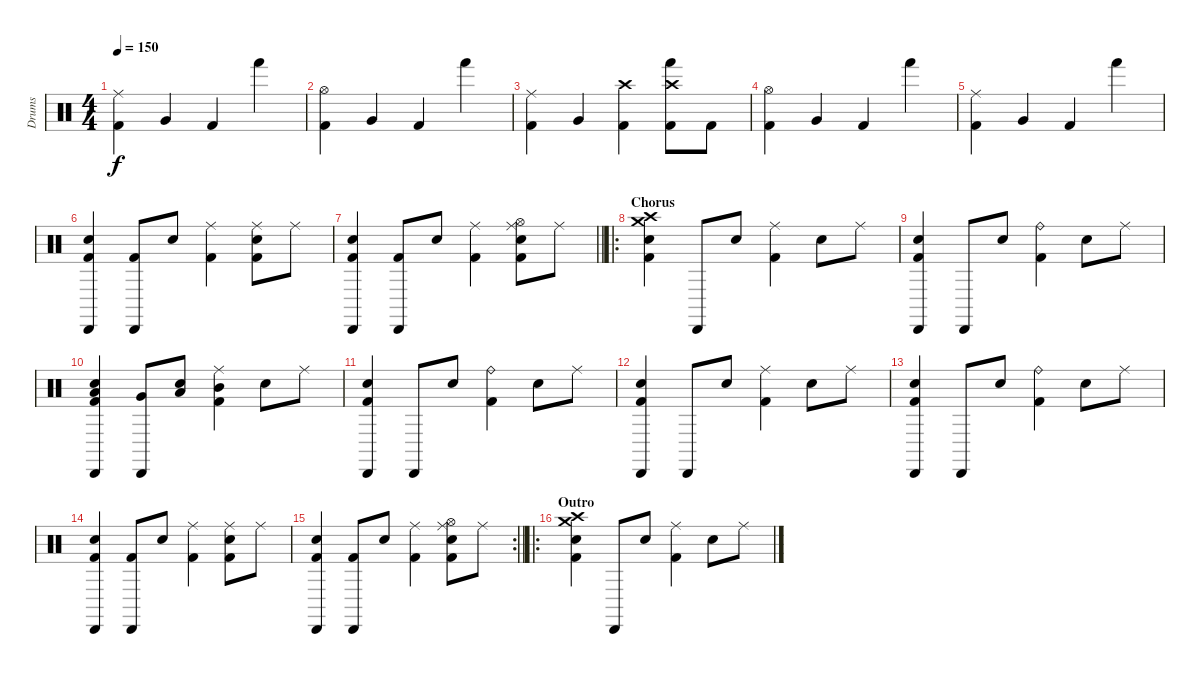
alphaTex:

\track ("Drums" "Drums") {instrument percussion}
\staff {score}
\articulation defaults
\ts (4 4)
\tempo 150
\clef neutral
\ks c
("Ride (middle)" "Kick (hit) 2").4{dy f} "Very Low Tom (hit)".4 "Kick (hit) 2".4 "Hand (hit)".4 |
("Hi-Hat (open)" "Kick (hit) 2").4 "Very Low Tom (hit)".4 "Kick (hit) 2".4 "Hand (hit)".4 |
("Ride (middle)" "Kick (hit) 2").4 "Very Low Tom (hit)".4 ("Crash high (hit)" "Kick (hit) 2").4 ("Crash high (hit)" "Hand (hit)" "Kick (hit) 2").8 "Kick (hit) 2".8 |
("Hi-Hat (open)" "Kick (hit) 2").4 "Very Low Tom (hit)".4 "Kick (hit) 2".4 "Hand (hit)".4 |
("Ride (middle)" "Kick (hit) 2").4 "Very Low Tom (hit)".4 "Kick (hit) 2".4 "Hand (hit)".4 |
("Cabasa (hit)" "Electric Snare (hit)" "Kick (hit) 2").4 ("Cabasa (hit)" "Kick (hit) 2").8 "Electric Snare (hit)".8 ("Ride (middle)" "Kick (hit) 2").4 ("Ride (middle)" "Electric Snare (hit)" "Kick (hit) 2").8 "Ride (middle)".8 |
\barLineRight lightlight
("Cabasa (hit)" "Electric Snare (hit)" "Kick (hit) 2").4 ("Cabasa (hit)" "Kick (hit) 2").8 "Electric Snare (hit)".8 ("Ride (middle)" "Kick (hit) 2").4 ("Ride (middle)" "Electric Snare (hit)" "Hi-Hat (open)" "Kick (hit) 2").8 "Ride (middle)".8 |
\ro
\section ("" "Chorus")
("Crash medium (hit)" "Crash high (hit)" "Electric Snare (hit)" "Kick (hit) 2").4 "Cabasa (hit)".8 "Electric Snare (hit)".8 ("Ride (middle)" "Kick (hit) 2").4 "Electric Snare (hit)".8 "Ride (middle)".8 |
("Cabasa (hit)" "Electric Snare (hit)" "Kick (hit) 2").4 "Cabasa (hit)".8 "Electric Snare (hit)".8 ("Ride (bell)" "Kick (hit) 2").4 "Electric Snare (hit)".8 "Ride (middle)".8 |
("Cabasa (hit)" "Low Floor Tom (hit)" "Electric Snare (hit)" "Kick (hit) 2").4 ("Cabasa (hit)" "Very Low Tom (hit)").8 ("Electric Snare (hit)" "Low Tom (hit)").8 ("Ride (middle)" "Mid Tom (hit)" "Kick (hit) 2").4 "Electric Snare (hit)".8 "Ride (middle)".8 |
("Cabasa (hit)" "Electric Snare (hit)" "Kick (hit) 2").4 "Cabasa (hit)".8 "Electric Snare (hit)".8 ("Ride (bell)" "Kick (hit) 2").4 "Electric Snare (hit)".8 "Ride (middle)".8 |
("Cabasa (hit)" "Electric Snare (hit)" "Kick (hit) 2").4 "Cabasa (hit)".8 "Electric Snare (hit)".8 ("Ride (middle)" "Kick (hit) 2").4 "Electric Snare (hit)".8 "Ride (middle)".8 |
("Cabasa (hit)" "Electric Snare (hit)" "Kick (hit) 2").4 "Cabasa (hit)".8 "Electric Snare (hit)".8 ("Ride (bell)" "Kick (hit) 2").4 "Electric Snare (hit)".8 "Ride (middle)".8 |
("Cabasa (hit)" "Electric Snare (hit)" "Kick (hit) 2").4 ("Cabasa (hit)" "Kick (hit) 2").8 "Electric Snare (hit)".8 ("Ride (middle)" "Kick (hit) 2").4 ("Ride (middle)" "Electric Snare (hit)" "Kick (hit) 2").8 "Ride (middle)".8 |
\rc 2
\barLineRight lightlight
("Cabasa (hit)" "Electric Snare (hit)" "Kick (hit) 2").4 ("Cabasa (hit)" "Kick (hit) 2").8 "Electric Snare (hit)".8 ("Ride (middle)" "Kick (hit) 2").4 ("Ride (middle)" "Electric Snare (hit)" "Hi-Hat (open)" "Kick (hit) 2").8 "Ride (middle)".8 |
\ro
\section ("" "Outro")
("Crash medium (hit)" "Crash high (hit)" "Electric Snare (hit)" "Kick (hit) 2").4 "Cabasa (hit)".8 "Electric Snare (hit)".8 ("Ride (middle)" "Kick (hit) 2").4 "Electric Snare (hit)".8 "Ride (middle)".8
